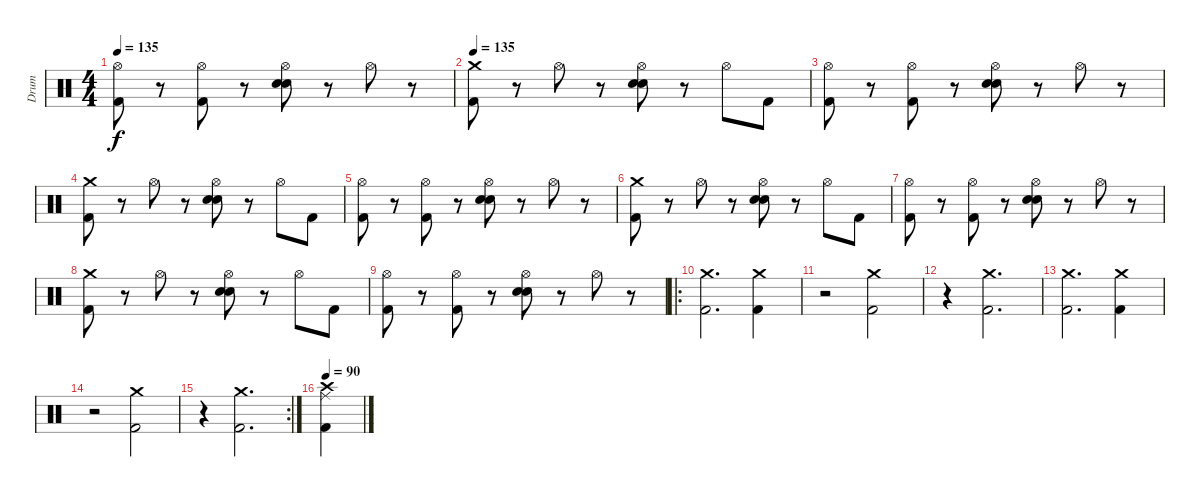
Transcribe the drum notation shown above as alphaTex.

\track ("Drum" "Drum") {instrument percussion}
\staff {score}
\articulation defaults
\ts (4 4)
\tempo 135
\clef neutral
\ks c
("Hi-Hat (open)" "Kick (hit) 2").8{dy f} r.8 ("Hi-Hat (open)" "Kick (hit) 2").8 r.8 ("Hi-Hat (open)" "Snare (hit) 2" "Electric Snare (hit)").8 r.8 "Hi-Hat (open)".8 r.8 |
\tempo 135
("Crash medium (hit)" "Kick (hit) 2").8 r.8 "Hi-Hat (open)".8 r.8 ("Hi-Hat (open)" "Snare (hit) 2" "Electric Snare (hit)").8 r.8 "Hi-Hat (open)".8 "Kick (hit) 2".8 |
("Hi-Hat (open)" "Kick (hit) 2").8 r.8 ("Hi-Hat (open)" "Kick (hit) 2").8 r.8 ("Hi-Hat (open)" "Snare (hit) 2" "Electric Snare (hit)").8 r.8 "Hi-Hat (open)".8 r.8 |
("Crash medium (hit)" "Kick (hit) 2").8 r.8 "Hi-Hat (open)".8 r.8 ("Hi-Hat (open)" "Snare (hit) 2" "Electric Snare (hit)").8 r.8 "Hi-Hat (open)".8 "Kick (hit) 2".8 |
("Hi-Hat (open)" "Kick (hit) 2").8 r.8 ("Hi-Hat (open)" "Kick (hit) 2").8 r.8 ("Hi-Hat (open)" "Snare (hit) 2" "Electric Snare (hit)").8 r.8 "Hi-Hat (open)".8 r.8 |
("Crash medium (hit)" "Kick (hit) 2").8 r.8 "Hi-Hat (open)".8 r.8 ("Hi-Hat (open)" "Snare (hit) 2" "Electric Snare (hit)").8 r.8 "Hi-Hat (open)".8 "Kick (hit) 2".8 |
("Hi-Hat (open)" "Kick (hit) 2").8 r.8 ("Hi-Hat (open)" "Kick (hit) 2").8 r.8 ("Hi-Hat (open)" "Snare (hit) 2" "Electric Snare (hit)").8 r.8 "Hi-Hat (open)".8 r.8 |
("Crash medium (hit)" "Kick (hit) 2").8 r.8 "Hi-Hat (open)".8 r.8 ("Hi-Hat (open)" "Snare (hit) 2" "Electric Snare (hit)").8 r.8 "Hi-Hat (open)".8 "Kick (hit) 2".8 |
("Hi-Hat (open)" "Kick (hit) 2").8 r.8 ("Hi-Hat (open)" "Kick (hit) 2").8 r.8 ("Hi-Hat (open)" "Snare (hit) 2" "Electric Snare (hit)").8 r.8 "Hi-Hat (open)".8 r.8 |
\ro
("Crash medium (hit)" "Kick (hit) 2").2{d} ("Crash medium (hit)" "Kick (hit) 2").4 |
r.2 ("Crash medium (hit)" "Kick (hit) 2").2 |
r.4 ("Crash medium (hit)" "Kick (hit) 2").2{d} |
("Crash medium (hit)" "Kick (hit) 2").2{d} ("Crash medium (hit)" "Kick (hit) 2").4 |
r.2 ("Crash medium (hit)" "Kick (hit) 2").2 |
\rc 2
r.4 ("Crash medium (hit)" "Kick (hit) 2").2{d} |
\tempo 90
("Crash high (hit)" "Ride (middle)" "Kick (hit) 2").4
